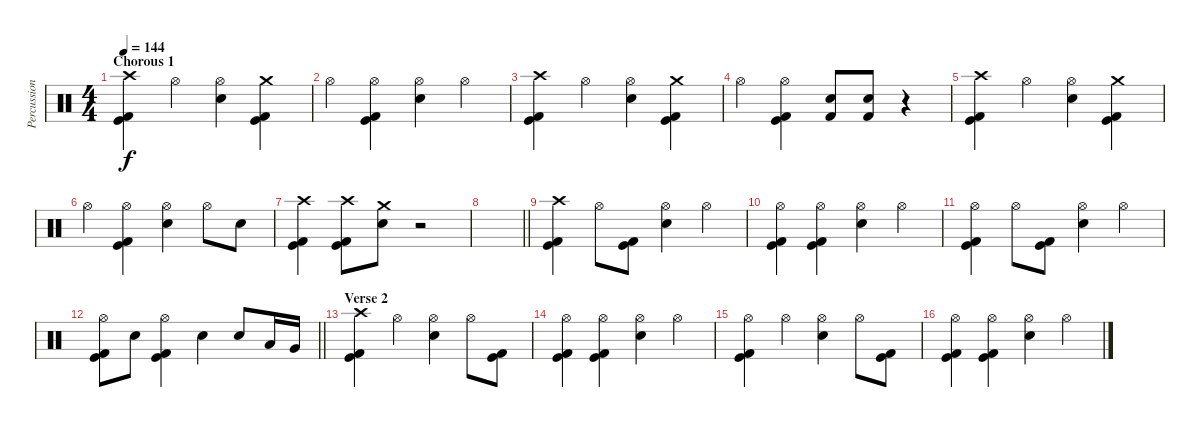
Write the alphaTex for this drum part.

\track ("Percussion" "Percussion") {instrument percussion}
\staff {score}
\articulation defaults
\ts (4 4)
\section ("" "Chorous 1")
\tempo 144
\clef neutral
\ks c
("Crash high (hit)" "Kick (hit)" "Kick (hit) 2").4{dy f} "Hi-Hat (open)".4 ("Hi-Hat (open)" "Electric Snare (hit)").4 ("Crash medium (hit)" "Kick (hit)" "Kick (hit) 2").4 |
"Hi-Hat (open)".4 ("Hi-Hat (open)" "Kick (hit)" "Kick (hit) 2").4 ("Hi-Hat (open)" "Electric Snare (hit)").4 "Hi-Hat (open)".4 |
("Crash high (hit)" "Kick (hit)" "Kick (hit) 2").4 "Hi-Hat (open)".4 ("Hi-Hat (open)" "Electric Snare (hit)").4 ("Crash medium (hit)" "Kick (hit)" "Kick (hit) 2").4 |
"Hi-Hat (open)".4 ("Hi-Hat (open)" "Kick (hit)" "Kick (hit) 2").4 ("Electric Snare (hit)" "Kick (hit) 2").8 ("Electric Snare (hit)" "Kick (hit) 2").8 r.4 |
("Crash high (hit)" "Kick (hit)" "Kick (hit) 2").4 "Hi-Hat (open)".4 ("Hi-Hat (open)" "Electric Snare (hit)").4 ("Crash medium (hit)" "Kick (hit)" "Kick (hit) 2").4 |
"Hi-Hat (open)".4 ("Hi-Hat (open)" "Kick (hit)" "Kick (hit) 2").4 ("Hi-Hat (open)" "Electric Snare (hit)").4 "Hi-Hat (open)".8 "Electric Snare (hit)".8 |
("Crash high (hit)" "Kick (hit)" "Kick (hit) 2").4 ("Crash high (hit)" "Kick (hit)" "Kick (hit) 2").8 ("Crash medium (hit)" "Electric Snare (hit)").8 r.2 |
\barLineRight lightlight
|
\section ("" "")
("Crash high (hit)" "Kick (hit)" "Kick (hit) 2").4 "Hi-Hat (open)".8 ("Kick (hit)" "Kick (hit) 2").8 ("Hi-Hat (open)" "Electric Snare (hit)").4 "Hi-Hat (open)".4 |
("Hi-Hat (open)" "Kick (hit)" "Kick (hit) 2").4 ("Hi-Hat (open)" "Kick (hit)" "Kick (hit) 2").4 ("Hi-Hat (open)" "Electric Snare (hit)").4 "Hi-Hat (open)".4 |
("Hi-Hat (open)" "Kick (hit)" "Kick (hit) 2").4 "Hi-Hat (open)".8 ("Kick (hit)" "Kick (hit) 2").8 ("Hi-Hat (open)" "Electric Snare (hit)").4 "Hi-Hat (open)".4 |
\barLineRight lightlight
("Hi-Hat (open)" "Kick (hit)" "Kick (hit) 2").8 "Electric Snare (hit)".8 ("Hi-Hat (open)" "Kick (hit)" "Kick (hit) 2").4 "Electric Snare (hit)".4 "Electric Snare (hit)".8 "Low Tom (hit)".16 "Very Low Tom (hit)".16 |
\section ("" "Verse 2")
("Crash high (hit)" "Kick (hit)" "Kick (hit) 2").4 "Hi-Hat (open)".4 ("Hi-Hat (open)" "Electric Snare (hit)").4 "Hi-Hat (open)".8 ("Kick (hit)" "Kick (hit) 2").8 |
("Hi-Hat (open)" "Kick (hit)" "Kick (hit) 2").4 ("Hi-Hat (open)" "Kick (hit)" "Kick (hit) 2").4 ("Hi-Hat (open)" "Electric Snare (hit)").4 "Hi-Hat (open)".4 |
("Hi-Hat (open)" "Kick (hit)" "Kick (hit) 2").4 "Hi-Hat (open)".4 ("Hi-Hat (open)" "Electric Snare (hit)").4 "Hi-Hat (open)".8 ("Kick (hit)" "Kick (hit) 2").8 |
("Hi-Hat (open)" "Kick (hit)" "Kick (hit) 2").4 ("Hi-Hat (open)" "Kick (hit)" "Kick (hit) 2").4 ("Hi-Hat (open)" "Electric Snare (hit)").4 "Hi-Hat (open)".4
